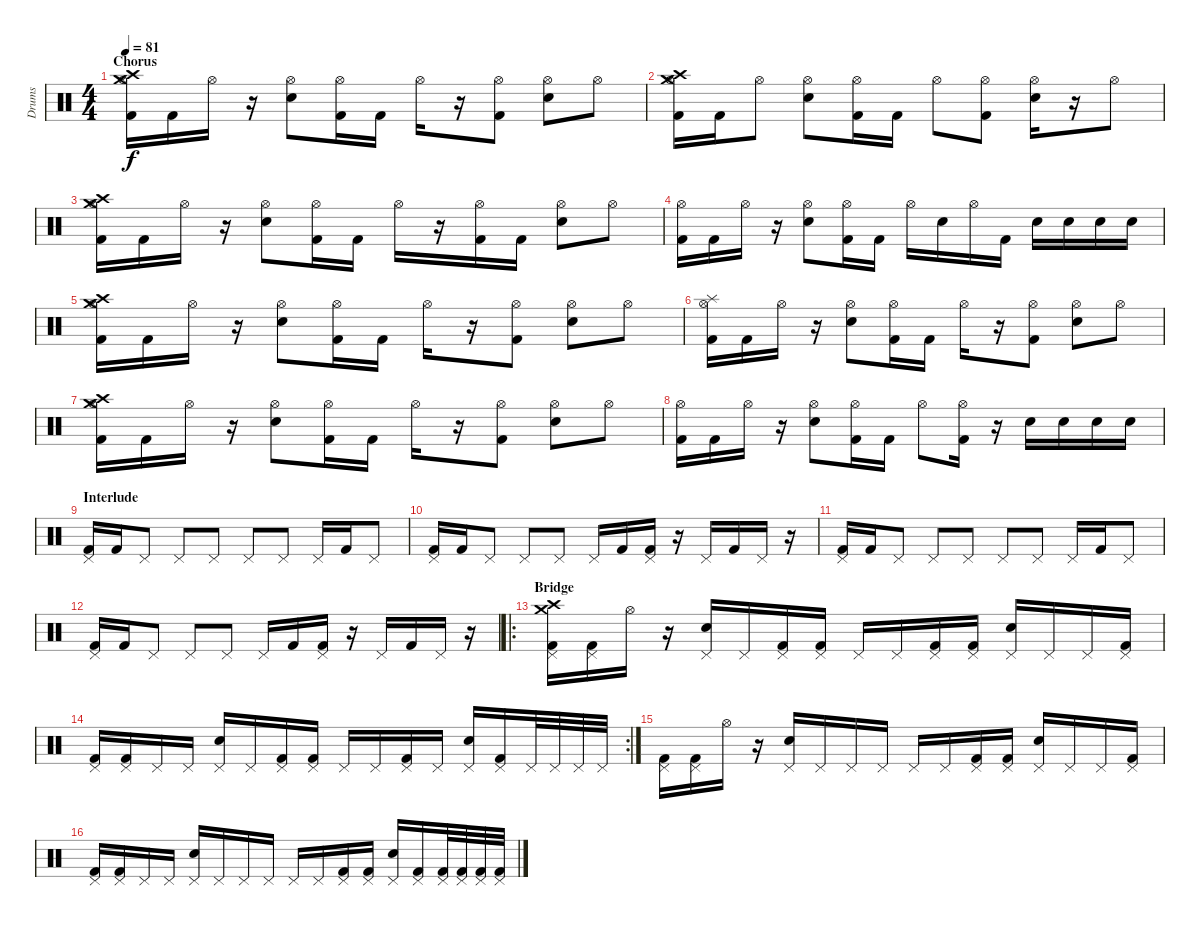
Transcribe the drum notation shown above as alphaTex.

\track ("Drums" "Drums") {instrument percussion}
\staff {score}
\articulation defaults
\ts (4 4)
\section ("" "Chorus")
\tempo 81
\clef neutral
\ks c
("Crash medium (hit)" "Crash high (hit)" "Kick (hit) 2" "Hi-Hat (open)").16{dy f} "Kick (hit) 2".16 "Hi-Hat (open)".16 r.16 ("Snare (hit) 2" "Hi-Hat (open)").8 ("Kick (hit) 2" "Hi-Hat (open)").16 "Kick (hit) 2".16 "Hi-Hat (open)".16 r.16 ("Kick (hit) 2" "Hi-Hat (open)").8 ("Snare (hit) 2" "Hi-Hat (open)").8 "Hi-Hat (open)".8 |
("Crash medium (hit)" "Crash high (hit)" "Kick (hit) 2" "Hi-Hat (open)").16 "Kick (hit) 2".16 "Hi-Hat (open)".8 ("Snare (hit) 2" "Hi-Hat (open)").8 ("Kick (hit) 2" "Hi-Hat (open)").16 "Kick (hit) 2".16 "Hi-Hat (open)".8 ("Kick (hit) 2" "Hi-Hat (open)").8 ("Snare (hit) 2" "Hi-Hat (open)").16 r.16 "Hi-Hat (open)".8 |
("Crash medium (hit)" "Crash high (hit)" "Kick (hit) 2" "Hi-Hat (open)").16 "Kick (hit) 2".16 "Hi-Hat (open)".16 r.16 ("Snare (hit) 2" "Hi-Hat (open)").8 ("Kick (hit) 2" "Hi-Hat (open)").16 "Kick (hit) 2".16 "Hi-Hat (open)".16 r.16 ("Kick (hit) 2" "Hi-Hat (open)").16 "Kick (hit) 2".16 ("Snare (hit) 2" "Hi-Hat (open)").8 "Hi-Hat (open)".8 |
("Kick (hit) 2" "Hi-Hat (open)").16 "Kick (hit) 2".16 "Hi-Hat (open)".16 r.16 ("Snare (hit) 2" "Hi-Hat (open)").8 ("Kick (hit) 2" "Hi-Hat (open)").16 "Kick (hit) 2".16 "Hi-Hat (open)".16 "Snare (hit) 2".16 "Hi-Hat (open)".16 "Kick (hit) 2".16 "Snare (hit) 2".16 "Snare (hit) 2".16 "Snare (hit) 2".16 "Snare (hit) 2".16 |
("Crash medium (hit)" "Crash high (hit)" "Kick (hit) 2" "Hi-Hat (open)").16 "Kick (hit) 2".16 "Hi-Hat (open)".16 r.16 ("Snare (hit) 2" "Hi-Hat (open)").8 ("Kick (hit) 2" "Hi-Hat (open)").16 "Kick (hit) 2".16 "Hi-Hat (open)".16 r.16 ("Kick (hit) 2" "Hi-Hat (open)").8 ("Snare (hit) 2" "Hi-Hat (open)").8 "Hi-Hat (open)".8 |
("Splash (hit)" "Kick (hit) 2" "Hi-Hat (open)").16 "Kick (hit) 2".16 "Hi-Hat (open)".16 r.16 ("Snare (hit) 2" "Hi-Hat (open)").8 ("Kick (hit) 2" "Hi-Hat (open)").16 "Kick (hit) 2".16 "Hi-Hat (open)".16 r.16 ("Kick (hit) 2" "Hi-Hat (open)").8 ("Snare (hit) 2" "Hi-Hat (open)").8 "Hi-Hat (open)".8 |
("Crash medium (hit)" "Crash high (hit)" "Kick (hit) 2" "Hi-Hat (open)").16 "Kick (hit) 2".16 "Hi-Hat (open)".16 r.16 ("Snare (hit) 2" "Hi-Hat (open)").8 ("Kick (hit) 2" "Hi-Hat (open)").16 "Kick (hit) 2".16 "Hi-Hat (open)".16 r.16 ("Kick (hit) 2" "Hi-Hat (open)").8 ("Snare (hit) 2" "Hi-Hat (open)").8 "Hi-Hat (open)".8 |
("Kick (hit) 2" "Hi-Hat (open)").16 "Kick (hit) 2".16 "Hi-Hat (open)".16 r.16 ("Snare (hit) 2" "Hi-Hat (open)").8 ("Kick (hit) 2" "Hi-Hat (open)").16 "Kick (hit) 2".16 "Hi-Hat (open)".8 ("Kick (hit) 2" "Hi-Hat (open)").16 r.16 "Snare (hit) 2".16 "Snare (hit) 2".16 "Snare (hit) 2".16 "Snare (hit) 2".16 |
\section ("" "Interlude")
("Kick (hit) 2" "Pedal Hi-Hat (hit)").16 "Kick (hit) 2".16 "Pedal Hi-Hat (hit)".8 "Pedal Hi-Hat (hit)".8 "Pedal Hi-Hat (hit)".8 "Pedal Hi-Hat (hit)".8 "Pedal Hi-Hat (hit)".8 "Pedal Hi-Hat (hit)".16 "Kick (hit) 2".16 "Pedal Hi-Hat (hit)".8 |
("Kick (hit) 2" "Pedal Hi-Hat (hit)").16 "Kick (hit) 2".16 "Pedal Hi-Hat (hit)".8 "Pedal Hi-Hat (hit)".8 "Pedal Hi-Hat (hit)".8 "Pedal Hi-Hat (hit)".16 "Kick (hit) 2".16 ("Kick (hit) 2" "Pedal Hi-Hat (hit)").16 r.16 "Pedal Hi-Hat (hit)".16 "Kick (hit) 2".16 "Pedal Hi-Hat (hit)".16 r.16 |
("Kick (hit) 2" "Pedal Hi-Hat (hit)").16 "Kick (hit) 2".16 "Pedal Hi-Hat (hit)".8 "Pedal Hi-Hat (hit)".8 "Pedal Hi-Hat (hit)".8 "Pedal Hi-Hat (hit)".8 "Pedal Hi-Hat (hit)".8 "Pedal Hi-Hat (hit)".16 "Kick (hit) 2".16 "Pedal Hi-Hat (hit)".8 |
("Kick (hit) 2" "Pedal Hi-Hat (hit)").16 "Kick (hit) 2".16 "Pedal Hi-Hat (hit)".8 "Pedal Hi-Hat (hit)".8 "Pedal Hi-Hat (hit)".8 "Pedal Hi-Hat (hit)".16 "Kick (hit) 2".16 ("Kick (hit) 2" "Pedal Hi-Hat (hit)").16 r.16 "Pedal Hi-Hat (hit)".16 "Kick (hit) 2".16 "Pedal Hi-Hat (hit)".16 r.16 |
\ro
\section ("" "Bridge")
("Crash medium (hit)" "Crash high (hit)" "Kick (hit) 2" "Pedal Hi-Hat (hit)").16 ("Kick (hit) 2" "Pedal Hi-Hat (hit)").16 "Hi-Hat (open)".16 r.16 ("Snare (hit) 2" "Pedal Hi-Hat (hit)").16 "Pedal Hi-Hat (hit)".16 ("Kick (hit) 2" "Pedal Hi-Hat (hit)").16 ("Kick (hit) 2" "Pedal Hi-Hat (hit)").16 "Pedal Hi-Hat (hit)".16 "Pedal Hi-Hat (hit)".16 ("Kick (hit) 2" "Pedal Hi-Hat (hit)").16 ("Kick (hit) 2" "Pedal Hi-Hat (hit)").16 ("Snare (hit) 2" "Pedal Hi-Hat (hit)").16 "Pedal Hi-Hat (hit)".16 "Pedal Hi-Hat (hit)".16 ("Kick (hit) 2" "Pedal Hi-Hat (hit)").16 |
\rc 2
("Kick (hit) 2" "Pedal Hi-Hat (hit)").16 ("Kick (hit) 2" "Pedal Hi-Hat (hit)").16 "Pedal Hi-Hat (hit)".16 "Pedal Hi-Hat (hit)".16 ("Snare (hit) 2" "Pedal Hi-Hat (hit)").16 "Pedal Hi-Hat (hit)".16 ("Kick (hit) 2" "Pedal Hi-Hat (hit)").16 ("Kick (hit) 2" "Pedal Hi-Hat (hit)").16 "Pedal Hi-Hat (hit)".16 "Pedal Hi-Hat (hit)".16 ("Kick (hit) 2" "Pedal Hi-Hat (hit)").16 "Pedal Hi-Hat (hit)".16 ("Snare (hit) 2" "Pedal Hi-Hat (hit)").16 ("Kick (hit) 2" "Pedal Hi-Hat (hit)").16 "Pedal Hi-Hat (hit)".32 "Pedal Hi-Hat (hit)".32 "Pedal Hi-Hat (hit)".32 "Pedal Hi-Hat (hit)".32 |
("Kick (hit) 2" "Pedal Hi-Hat (hit)").16 ("Kick (hit) 2" "Pedal Hi-Hat (hit)").16 "Hi-Hat (open)".16 r.16 ("Snare (hit) 2" "Pedal Hi-Hat (hit)").16 "Pedal Hi-Hat (hit)".16 "Pedal Hi-Hat (hit)".16 "Pedal Hi-Hat (hit)".16 "Pedal Hi-Hat (hit)".16 "Pedal Hi-Hat (hit)".16 ("Kick (hit) 2" "Pedal Hi-Hat (hit)").16 ("Kick (hit) 2" "Pedal Hi-Hat (hit)").16 ("Snare (hit) 2" "Pedal Hi-Hat (hit)").16 "Pedal Hi-Hat (hit)".16 "Pedal Hi-Hat (hit)".16 ("Kick (hit) 2" "Pedal Hi-Hat (hit)").16 |
("Kick (hit) 2" "Pedal Hi-Hat (hit)").16 ("Kick (hit) 2" "Pedal Hi-Hat (hit)").16 "Pedal Hi-Hat (hit)".16 "Pedal Hi-Hat (hit)".16 ("Snare (hit) 2" "Pedal Hi-Hat (hit)").16 "Pedal Hi-Hat (hit)".16 "Pedal Hi-Hat (hit)".16 "Pedal Hi-Hat (hit)".16 "Pedal Hi-Hat (hit)".16 "Pedal Hi-Hat (hit)".16 ("Kick (hit) 2" "Pedal Hi-Hat (hit)").16 ("Kick (hit) 2" "Pedal Hi-Hat (hit)").16 ("Snare (hit) 2" "Pedal Hi-Hat (hit)").16 ("Kick (hit) 2" "Pedal Hi-Hat (hit)").16 ("Kick (hit) 2" "Pedal Hi-Hat (hit)").32 ("Kick (hit) 2" "Pedal Hi-Hat (hit)").32 ("Kick (hit) 2" "Pedal Hi-Hat (hit)").32 ("Kick (hit) 2" "Pedal Hi-Hat (hit)").32
